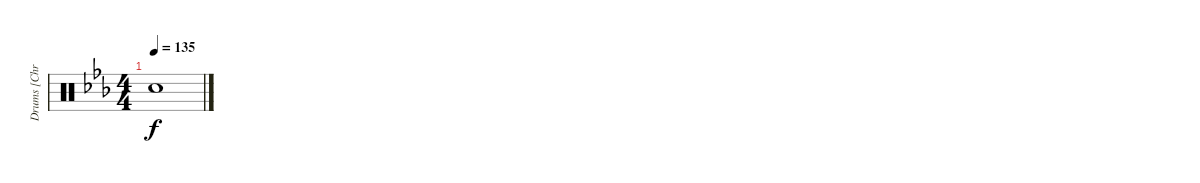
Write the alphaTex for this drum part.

\track ("Drums [Chris Hornbrook]" "Drums [Chr") {instrument percussion}
\staff {score}
\articulation defaults
\ts (4 4)
\tempo 135
\clef neutral
\ks cminor "Snare (hit)"{t}.1{dy f}
